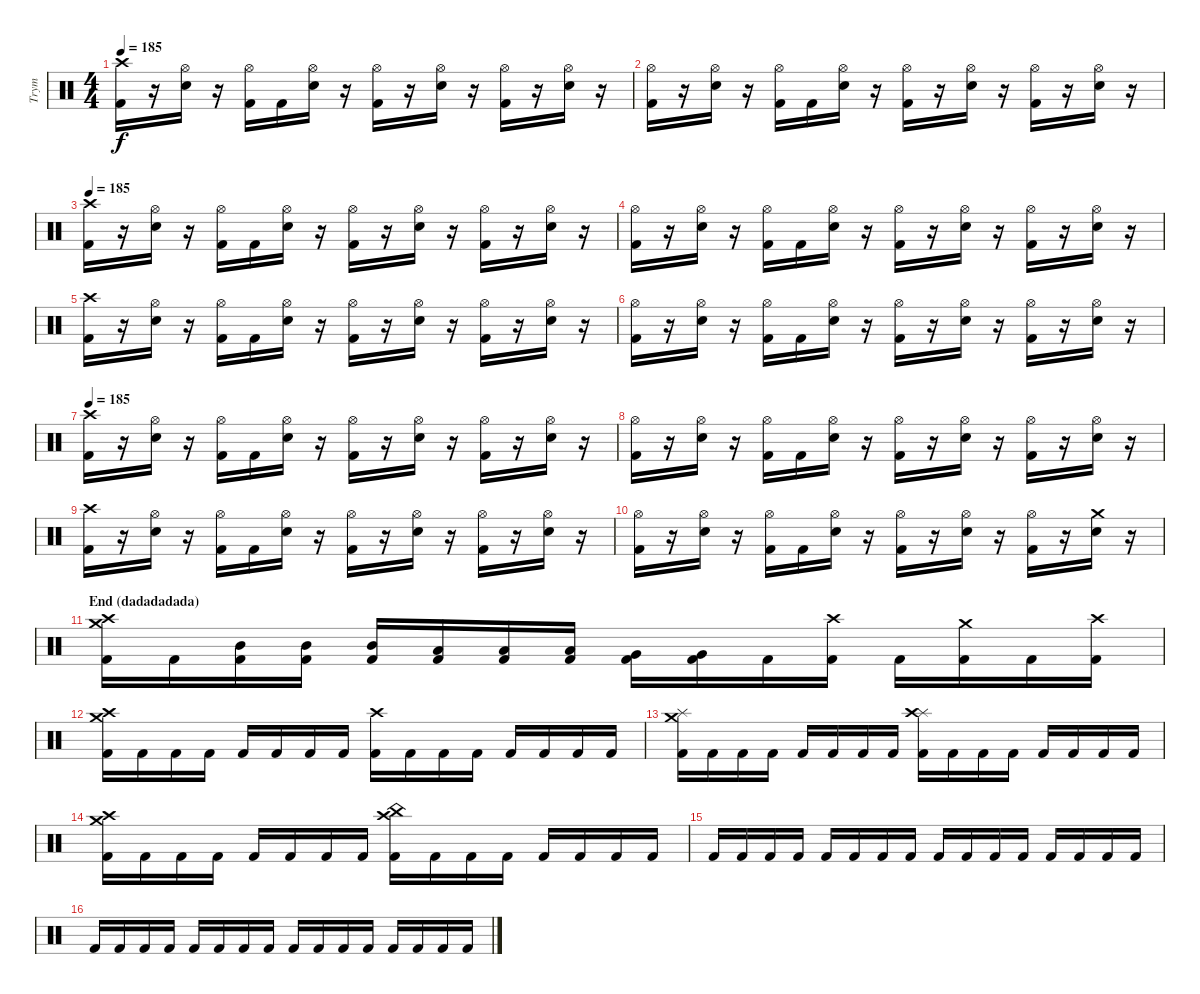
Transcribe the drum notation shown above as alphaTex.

\track ("Trym" "Trym") {instrument percussion}
\staff {score}
\articulation defaults
\ts (4 4)
\tempo 185
\clef neutral
\ks c
("Kick (hit) 2" "Crash high (hit)").16{dy f} r.16 ("Electric Snare (hit)" "Hi-Hat (open)").16 r.16 ("Kick (hit) 2" "Hi-Hat (open)").16 "Kick (hit) 2".16 ("Electric Snare (hit)" "Hi-Hat (open)").16 r.16 ("Kick (hit) 2" "Hi-Hat (open)").16 r.16 ("Electric Snare (hit)" "Hi-Hat (open)").16 r.16 ("Kick (hit) 2" "Hi-Hat (open)").16 r.16 ("Electric Snare (hit)" "Hi-Hat (open)").16 r.16 |
("Kick (hit) 2" "Hi-Hat (open)").16 r.16 ("Electric Snare (hit)" "Hi-Hat (open)").16 r.16 ("Kick (hit) 2" "Hi-Hat (open)").16 "Kick (hit) 2".16 ("Electric Snare (hit)" "Hi-Hat (open)").16 r.16 ("Kick (hit) 2" "Hi-Hat (open)").16 r.16 ("Electric Snare (hit)" "Hi-Hat (open)").16 r.16 ("Kick (hit) 2" "Hi-Hat (open)").16 r.16 ("Electric Snare (hit)" "Hi-Hat (open)").16 r.16 |
\tempo 185
("Kick (hit) 2" "Crash high (hit)").16 r.16 ("Electric Snare (hit)" "Hi-Hat (open)").16 r.16 ("Kick (hit) 2" "Hi-Hat (open)").16 "Kick (hit) 2".16 ("Electric Snare (hit)" "Hi-Hat (open)").16 r.16 ("Kick (hit) 2" "Hi-Hat (open)").16 r.16 ("Electric Snare (hit)" "Hi-Hat (open)").16 r.16 ("Kick (hit) 2" "Hi-Hat (open)").16 r.16 ("Electric Snare (hit)" "Hi-Hat (open)").16 r.16 |
("Kick (hit) 2" "Hi-Hat (open)").16 r.16 ("Electric Snare (hit)" "Hi-Hat (open)").16 r.16 ("Kick (hit) 2" "Hi-Hat (open)").16 "Kick (hit) 2".16 ("Electric Snare (hit)" "Hi-Hat (open)").16 r.16 ("Kick (hit) 2" "Hi-Hat (open)").16 r.16 ("Electric Snare (hit)" "Hi-Hat (open)").16 r.16 ("Kick (hit) 2" "Hi-Hat (open)").16 r.16 ("Electric Snare (hit)" "Hi-Hat (open)").16 r.16 |
("Kick (hit) 2" "Crash high (hit)").16 r.16 ("Electric Snare (hit)" "Hi-Hat (open)").16 r.16 ("Kick (hit) 2" "Hi-Hat (open)").16 "Kick (hit) 2".16 ("Electric Snare (hit)" "Hi-Hat (open)").16 r.16 ("Kick (hit) 2" "Hi-Hat (open)").16 r.16 ("Electric Snare (hit)" "Hi-Hat (open)").16 r.16 ("Kick (hit) 2" "Hi-Hat (open)").16 r.16 ("Electric Snare (hit)" "Hi-Hat (open)").16 r.16 |
("Kick (hit) 2" "Hi-Hat (open)").16 r.16 ("Electric Snare (hit)" "Hi-Hat (open)").16 r.16 ("Kick (hit) 2" "Hi-Hat (open)").16 "Kick (hit) 2".16 ("Electric Snare (hit)" "Hi-Hat (open)").16 r.16 ("Kick (hit) 2" "Hi-Hat (open)").16 r.16 ("Electric Snare (hit)" "Hi-Hat (open)").16 r.16 ("Kick (hit) 2" "Hi-Hat (open)").16 r.16 ("Electric Snare (hit)" "Hi-Hat (open)").16 r.16 |
\tempo 185
("Kick (hit) 2" "Crash high (hit)").16 r.16 ("Electric Snare (hit)" "Hi-Hat (open)").16 r.16 ("Kick (hit) 2" "Hi-Hat (open)").16 "Kick (hit) 2".16 ("Electric Snare (hit)" "Hi-Hat (open)").16 r.16 ("Kick (hit) 2" "Hi-Hat (open)").16 r.16 ("Electric Snare (hit)" "Hi-Hat (open)").16 r.16 ("Kick (hit) 2" "Hi-Hat (open)").16 r.16 ("Electric Snare (hit)" "Hi-Hat (open)").16 r.16 |
("Kick (hit) 2" "Hi-Hat (open)").16 r.16 ("Electric Snare (hit)" "Hi-Hat (open)").16 r.16 ("Kick (hit) 2" "Hi-Hat (open)").16 "Kick (hit) 2".16 ("Electric Snare (hit)" "Hi-Hat (open)").16 r.16 ("Kick (hit) 2" "Hi-Hat (open)").16 r.16 ("Electric Snare (hit)" "Hi-Hat (open)").16 r.16 ("Kick (hit) 2" "Hi-Hat (open)").16 r.16 ("Electric Snare (hit)" "Hi-Hat (open)").16 r.16 |
("Kick (hit) 2" "Crash high (hit)").16 r.16 ("Electric Snare (hit)" "Hi-Hat (open)").16 r.16 ("Kick (hit) 2" "Hi-Hat (open)").16 "Kick (hit) 2".16 ("Electric Snare (hit)" "Hi-Hat (open)").16 r.16 ("Kick (hit) 2" "Hi-Hat (open)").16 r.16 ("Electric Snare (hit)" "Hi-Hat (open)").16 r.16 ("Kick (hit) 2" "Hi-Hat (open)").16 r.16 ("Electric Snare (hit)" "Hi-Hat (open)").16 r.16 |
("Kick (hit) 2" "Hi-Hat (open)").16 r.16 ("Electric Snare (hit)" "Hi-Hat (open)").16 r.16 ("Kick (hit) 2" "Hi-Hat (open)").16 "Kick (hit) 2".16 ("Electric Snare (hit)" "Hi-Hat (open)").16 r.16 ("Kick (hit) 2" "Hi-Hat (open)").16 r.16 ("Electric Snare (hit)" "Hi-Hat (open)").16 r.16 ("Kick (hit) 2" "Hi-Hat (open)").16 r.16 ("Electric Snare (hit)" "Crash medium (hit)").16 r.16 |
\section ("" "End (dadadadada)")
("Kick (hit) 2" "Crash medium (hit)" "Crash high (hit)").16 "Kick (hit) 2".16 ("Kick (hit) 2" "Mid Tom (hit)").16 ("Kick (hit) 2" "Mid Tom (hit)").16 ("Kick (hit) 2" "Mid Tom (hit)").16 ("Kick (hit) 2" "Low Tom (hit)").16 ("Kick (hit) 2" "Low Tom (hit)").16 ("Kick (hit) 2" "Low Tom (hit)").16 ("Kick (hit) 2" "Very Low Tom (hit)").16 ("Kick (hit) 2" "Very Low Tom (hit)").16 "Kick (hit) 2".16 ("Kick (hit) 2" "Crash high (hit)").16 "Kick (hit) 2".16 ("Kick (hit) 2" "Crash medium (hit)").16 "Kick (hit) 2".16 ("Kick (hit) 2" "Crash high (hit)").16 |
("Kick (hit) 2" "Crash medium (hit)" "Crash high (hit)").16 "Kick (hit) 2".16 "Kick (hit) 2".16 "Kick (hit) 2".16 "Kick (hit) 2".16 "Kick (hit) 2".16 "Kick (hit) 2".16 "Kick (hit) 2".16 ("Kick (hit) 2" "Crash high (hit)").16 "Kick (hit) 2".16 "Kick (hit) 2".16 "Kick (hit) 2".16 "Kick (hit) 2".16 "Kick (hit) 2".16 "Kick (hit) 2".16 "Kick (hit) 2".16 |
("Kick (hit) 2" "Crash medium (hit)" "Splash (hit)").16 "Kick (hit) 2".16 "Kick (hit) 2".16 "Kick (hit) 2".16 "Kick (hit) 2".16 "Kick (hit) 2".16 "Kick (hit) 2".16 "Kick (hit) 2".16 ("Kick (hit) 2" "Splash (hit)" "Crash high (hit)").16 "Kick (hit) 2".16 "Kick (hit) 2".16 "Kick (hit) 2".16 "Kick (hit) 2".16 "Kick (hit) 2".16 "Kick (hit) 2".16 "Kick (hit) 2".16 |
("Kick (hit) 2" "Crash medium (hit)" "Crash high (hit)").16{volume 0} "Kick (hit) 2".16 "Kick (hit) 2".16 "Kick (hit) 2".16 "Kick (hit) 2".16 "Kick (hit) 2".16 "Kick (hit) 2".16 "Kick (hit) 2".16 ("Kick (hit) 2" "China (hit)" "Crash high (hit)").16 "Kick (hit) 2".16 "Kick (hit) 2".16 "Kick (hit) 2".16 "Kick (hit) 2".16 "Kick (hit) 2".16 "Kick (hit) 2".16 "Kick (hit) 2".16 |
"Kick (hit) 2".16 "Kick (hit) 2".16 "Kick (hit) 2".16 "Kick (hit) 2".16 "Kick (hit) 2".16 "Kick (hit) 2".16 "Kick (hit) 2".16 "Kick (hit) 2".16 "Kick (hit) 2".16 "Kick (hit) 2".16 "Kick (hit) 2".16 "Kick (hit) 2".16 "Kick (hit) 2".16 "Kick (hit) 2".16 "Kick (hit) 2".16 "Kick (hit) 2".16 |
"Kick (hit) 2".16 "Kick (hit) 2".16 "Kick (hit) 2".16 "Kick (hit) 2".16 "Kick (hit) 2".16 "Kick (hit) 2".16 "Kick (hit) 2".16 "Kick (hit) 2".16 "Kick (hit) 2".16 "Kick (hit) 2".16 "Kick (hit) 2".16 "Kick (hit) 2".16 "Kick (hit) 2".16 "Kick (hit) 2".16 "Kick (hit) 2".16 "Kick (hit) 2".16
